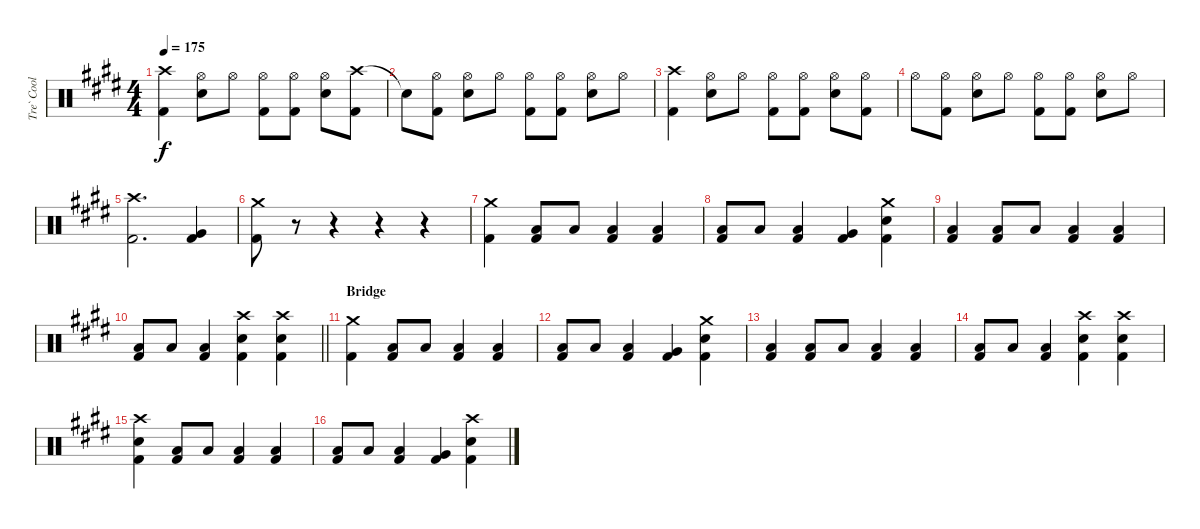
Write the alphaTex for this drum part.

\track ("Tre` Cool" "Tre` Cool") {instrument percussion}
\staff {score}
\articulation defaults
\ts (4 4)
\tempo 175
\clef neutral
\ks e
("Crash high (hit)" "Kick (hit) 2").4{dy f} ("Hi-Hat (open)" "Snare (hit) 2").8 "Hi-Hat (open)".8 ("Hi-Hat (open)" "Kick (hit) 2").8 ("Hi-Hat (open)" "Kick (hit) 2").8 ("Hi-Hat (open)" "Snare (hit) 2").8 ("Crash high (hit)" "Kick (hit) 2").8 |
"Snare (hit)"{t}.8 ("Hi-Hat (open)" "Kick (hit) 2").8 ("Hi-Hat (open)" "Snare (hit) 2").8 "Hi-Hat (open)".8 ("Hi-Hat (open)" "Kick (hit) 2").8 ("Hi-Hat (open)" "Kick (hit) 2").8 ("Hi-Hat (open)" "Snare (hit) 2").8 "Hi-Hat (open)".8 |
("Crash high (hit)" "Kick (hit) 2").4 ("Hi-Hat (open)" "Snare (hit) 2").8 "Hi-Hat (open)".8 ("Hi-Hat (open)" "Kick (hit) 2").8 ("Hi-Hat (open)" "Kick (hit) 2").8 ("Hi-Hat (open)" "Snare (hit) 2").8 ("Hi-Hat (open)" "Kick (hit) 2").8 |
"Hi-Hat (open)".8 ("Hi-Hat (open)" "Kick (hit) 2").8 ("Hi-Hat (open)" "Snare (hit) 2").8 "Hi-Hat (open)".8 ("Hi-Hat (open)" "Kick (hit) 2").8 ("Hi-Hat (open)" "Kick (hit) 2").8 ("Hi-Hat (open)" "Snare (hit) 2").8 "Hi-Hat (open)".8 |
("Crash high (hit)" "Kick (hit) 2").2{d} ("Very Low Tom (hit)" "Kick (hit) 2").4 |
("Crash medium (hit)" "Kick (hit) 2").8 r.8 r.4 r.4 r.4 |
("Crash medium (hit)" "Kick (hit) 2").4 ("Low Floor Tom (hit)" "Kick (hit) 2").8 "Low Tom (hit)".8 ("Low Floor Tom (hit)" "Kick (hit) 2").4 ("Low Tom (hit)" "Kick (hit) 2").4 |
("Low Floor Tom (hit)" "Kick (hit) 2").8 "Low Tom (hit)".8 ("Low Floor Tom (hit)" "Kick (hit) 2").4 ("Very Low Tom (hit)" "Kick (hit) 2").4 ("Crash medium (hit)" "Snare (hit) 2" "Kick (hit) 2").4 |
("Low Tom (hit)" "Kick (hit) 2").4 ("Low Floor Tom (hit)" "Kick (hit) 2").8 "Low Tom (hit)".8 ("Low Floor Tom (hit)" "Kick (hit) 2").4 ("Low Tom (hit)" "Kick (hit) 2").4 |
\barLineRight lightlight
("Low Floor Tom (hit)" "Kick (hit) 2").8 "Low Tom (hit)".8 ("Low Floor Tom (hit)" "Kick (hit) 2").4 ("Crash high (hit)" "Snare (hit) 2" "Kick (hit) 2").4 ("Crash high (hit)" "Snare (hit) 2" "Kick (hit) 2").4 |
\section ("" "Bridge")
("Crash medium (hit)" "Kick (hit) 2").4 ("Low Floor Tom (hit)" "Kick (hit) 2").8 "Low Tom (hit)".8 ("Low Floor Tom (hit)" "Kick (hit) 2").4 ("Low Tom (hit)" "Kick (hit) 2").4 |
("Low Floor Tom (hit)" "Kick (hit) 2").8 "Low Tom (hit)".8 ("Low Floor Tom (hit)" "Kick (hit) 2").4 ("Very Low Tom (hit)" "Kick (hit) 2").4 ("Crash medium (hit)" "Snare (hit) 2" "Kick (hit) 2").4 |
("Low Tom (hit)" "Kick (hit) 2").4 ("Low Floor Tom (hit)" "Kick (hit) 2").8 "Low Tom (hit)".8 ("Low Floor Tom (hit)" "Kick (hit) 2").4 ("Low Tom (hit)" "Kick (hit) 2").4 |
("Low Floor Tom (hit)" "Kick (hit) 2").8 "Low Tom (hit)".8 ("Low Floor Tom (hit)" "Kick (hit) 2").4 ("Crash high (hit)" "Snare (hit) 2" "Kick (hit) 2").4 ("Crash high (hit)" "Snare (hit) 2" "Kick (hit) 2").4 |
("Crash high (hit)" "Snare (hit) 2" "Kick (hit) 2").4 ("Low Floor Tom (hit)" "Kick (hit) 2").8 "Low Tom (hit)".8 ("Low Floor Tom (hit)" "Kick (hit) 2").4 ("Low Tom (hit)" "Kick (hit) 2").4 |
("Low Floor Tom (hit)" "Kick (hit) 2").8 "Low Tom (hit)".8 ("Low Floor Tom (hit)" "Kick (hit) 2").4 ("Very Low Tom (hit)" "Kick (hit) 2").4 ("Crash high (hit)" "Snare (hit) 2" "Kick (hit) 2").4
